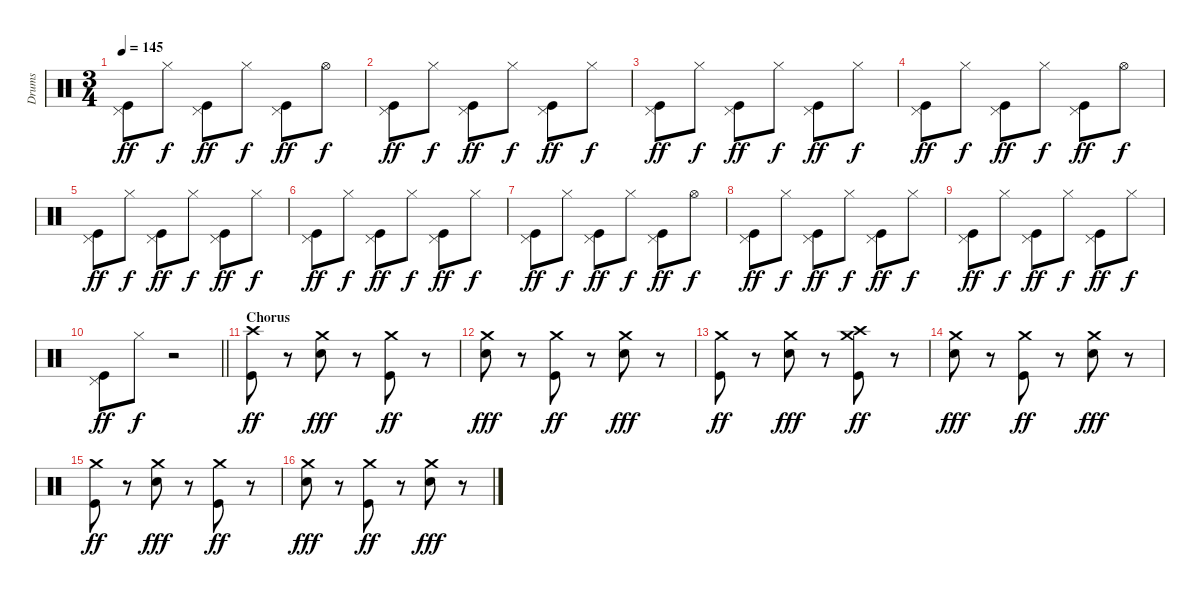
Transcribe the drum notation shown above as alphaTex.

\track ("Drums" "Drums") {instrument percussion}
\staff {score}
\articulation defaults
\ts (3 4)
\tempo 145
\clef neutral
\ks c
("Pedal Hi-Hat (hit)" "Kick (hit)").8{dy ff} "Hi-Hat (closed)".8{dy f} ("Pedal Hi-Hat (hit)" "Kick (hit)").8{dy ff} "Hi-Hat (closed)".8{dy f} ("Pedal Hi-Hat (hit)" "Kick (hit)").8{dy ff} "Hi-Hat (open)".8{dy f} |
("Pedal Hi-Hat (hit)" "Kick (hit)").8{dy ff} "Hi-Hat (closed)".8{dy f} ("Pedal Hi-Hat (hit)" "Kick (hit)").8{dy ff} "Hi-Hat (closed)".8{dy f} ("Pedal Hi-Hat (hit)" "Kick (hit)").8{dy ff} "Hi-Hat (closed)".8{dy f} |
("Pedal Hi-Hat (hit)" "Kick (hit)").8{dy ff} "Hi-Hat (closed)".8{dy f} ("Pedal Hi-Hat (hit)" "Kick (hit)").8{dy ff} "Hi-Hat (closed)".8{dy f} ("Pedal Hi-Hat (hit)" "Kick (hit)").8{dy ff} "Hi-Hat (closed)".8{dy f} |
("Pedal Hi-Hat (hit)" "Kick (hit)").8{dy ff} "Hi-Hat (closed)".8{dy f} ("Pedal Hi-Hat (hit)" "Kick (hit)").8{dy ff} "Hi-Hat (closed)".8{dy f} ("Pedal Hi-Hat (hit)" "Kick (hit)").8{dy ff} "Hi-Hat (open)".8{dy f} |
("Pedal Hi-Hat (hit)" "Kick (hit)").8{dy ff} "Hi-Hat (closed)".8{dy f} ("Pedal Hi-Hat (hit)" "Kick (hit)").8{dy ff} "Hi-Hat (closed)".8{dy f} ("Pedal Hi-Hat (hit)" "Kick (hit)").8{dy ff} "Hi-Hat (closed)".8{dy f} |
("Pedal Hi-Hat (hit)" "Kick (hit)").8{dy ff} "Hi-Hat (closed)".8{dy f} ("Pedal Hi-Hat (hit)" "Kick (hit)").8{dy ff} "Hi-Hat (closed)".8{dy f} ("Pedal Hi-Hat (hit)" "Kick (hit)").8{dy ff} "Hi-Hat (closed)".8{dy f} |
("Pedal Hi-Hat (hit)" "Kick (hit)").8{dy ff} "Hi-Hat (closed)".8{dy f} ("Pedal Hi-Hat (hit)" "Kick (hit)").8{dy ff} "Hi-Hat (closed)".8{dy f} ("Pedal Hi-Hat (hit)" "Kick (hit)").8{dy ff} "Hi-Hat (open)".8{dy f} |
("Pedal Hi-Hat (hit)" "Kick (hit)").8{dy ff} "Hi-Hat (closed)".8{dy f} ("Pedal Hi-Hat (hit)" "Kick (hit)").8{dy ff} "Hi-Hat (closed)".8{dy f} ("Pedal Hi-Hat (hit)" "Kick (hit)").8{dy ff} "Hi-Hat (closed)".8{dy f} |
("Pedal Hi-Hat (hit)" "Kick (hit)").8{dy ff} "Hi-Hat (closed)".8{dy f} ("Pedal Hi-Hat (hit)" "Kick (hit)").8{dy ff} "Hi-Hat (closed)".8{dy f} ("Pedal Hi-Hat (hit)" "Kick (hit)").8{dy ff} "Hi-Hat (closed)".8{dy f} |
\barLineRight lightlight
("Pedal Hi-Hat (hit)" "Kick (hit)").8{dy ff} "Hi-Hat (closed)".8{dy f} r.2 |
\section ("" "Chorus")
("Crash high (hit)" "Kick (hit)").8{dy ff} r.8 ("Crash medium (hit)" "Electric Snare (hit)").8{dy fff} r.8 ("Crash medium (hit)" "Kick (hit)").8{dy ff} r.8 |
("Crash medium (hit)" "Electric Snare (hit)").8{dy fff} r.8 ("Crash medium (hit)" "Kick (hit)").8{dy ff} r.8 ("Crash medium (hit)" "Electric Snare (hit)").8{dy fff} r.8 |
("Crash medium (hit)" "Kick (hit)").8{dy ff} r.8 ("Crash medium (hit)" "Electric Snare (hit)").8{dy fff} r.8 ("Crash high (hit)" "Crash medium (hit)" "Kick (hit)").8{dy ff} r.8 |
("Crash medium (hit)" "Electric Snare (hit)").8{dy fff} r.8 ("Crash medium (hit)" "Kick (hit)").8{dy ff} r.8 ("Crash medium (hit)" "Electric Snare (hit)").8{dy fff} r.8 |
("Crash medium (hit)" "Kick (hit)").8{dy ff} r.8 ("Crash medium (hit)" "Electric Snare (hit)").8{dy fff} r.8 ("Crash medium (hit)" "Kick (hit)").8{dy ff} r.8 |
("Crash medium (hit)" "Electric Snare (hit)").8{dy fff} r.8 ("Crash medium (hit)" "Kick (hit)").8{dy ff} r.8 ("Crash medium (hit)" "Electric Snare (hit)").8{dy fff} r.8
